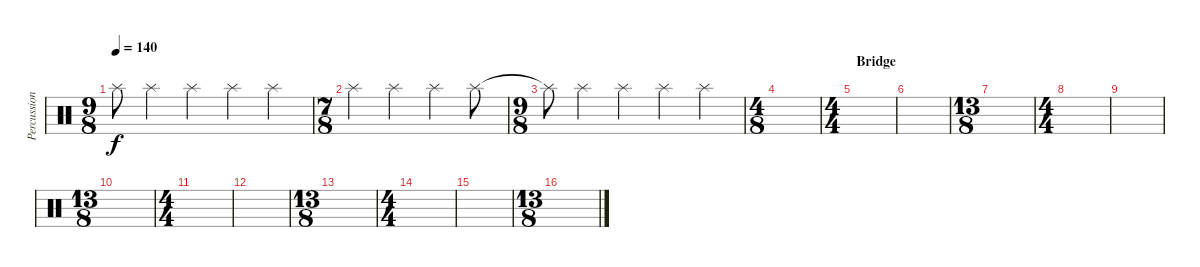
\track ("Percussion" "Percussion") {instrument percussion}
\staff {score}
\articulation defaults
\ts (9 8)
\tempo 140
\clef neutral
\ks c "Splash (hit)"{t}.8{dy f} "Splash (hit)".4 "Splash (hit)".4 "Splash (hit)".4 "Splash (hit)".4
|
\ts (7 8)
"Splash (hit)".4 "Splash (hit)".4 "Splash (hit)".4 "Splash (hit)".8 |
\ts (9 8)
"Splash (hit)"{t}.8 "Splash (hit)".4 "Splash (hit)".4 "Splash (hit)".4 "Splash (hit)".4 |
\ts (4 8)
|
\ts (4 4)
\section ("" "Bridge")
|
|
\ts (13 8)
|
\ts (4 4)
|
|
\ts (13 8)
|
\ts (4 4)
|
|
\ts (13 8)
|
\ts (4 4)
|
|
\ts (13 8)
